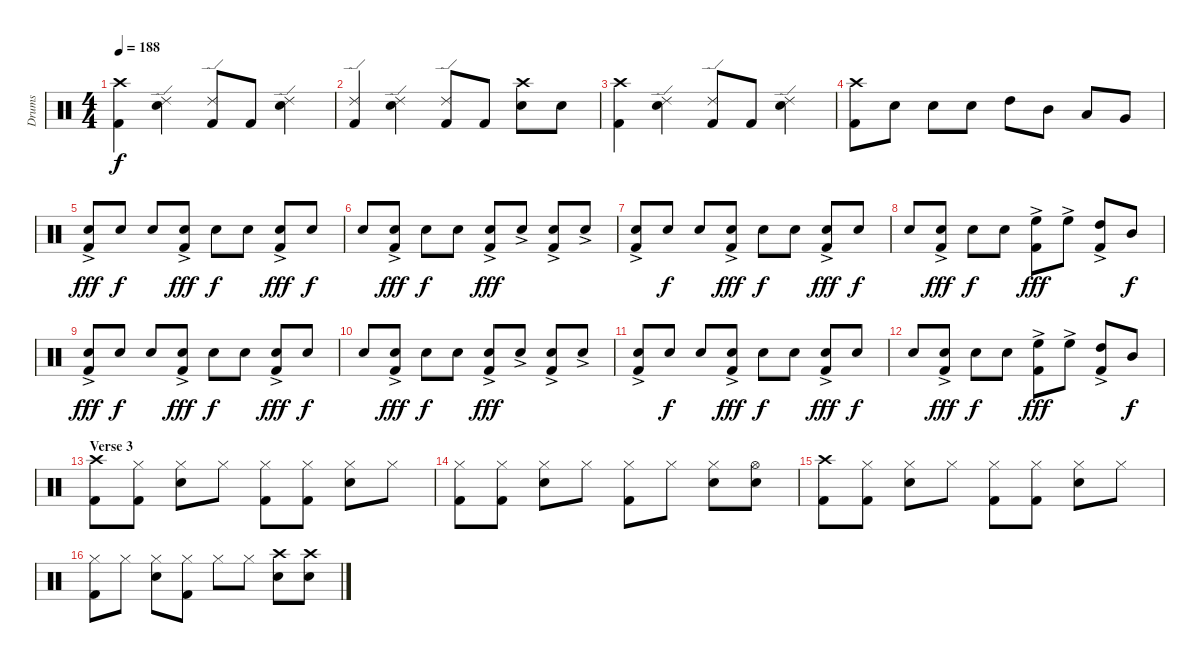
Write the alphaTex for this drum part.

\track ("Drums" "Drums") {instrument percussion}
\staff {score}
\articulation defaults
\ts (4 4)
\tempo 188
\clef neutral
\ks c
("Crash high (hit)" "Kick (hit) 2").4{dy f} ("Ride (edge) 2" "Snare (hit) 2").4 ("Ride (edge) 2" "Kick (hit) 2").8 "Kick (hit) 2".8 ("Ride (edge) 2" "Snare (hit) 2").4 |
("Ride (edge) 2" "Kick (hit) 2").4 ("Ride (edge) 2" "Snare (hit) 2").4 ("Ride (edge) 2" "Kick (hit) 2").8 "Kick (hit) 2".8 ("Crash high (hit)" "Snare (hit) 2").8 "Snare (hit) 2".8 |
("Crash high (hit)" "Kick (hit) 2").4 ("Ride (edge) 2" "Snare (hit) 2").4 ("Ride (edge) 2" "Kick (hit) 2").8 "Kick (hit) 2".8 ("Ride (edge) 2" "Snare (hit) 2").4 |
("Crash high (hit)" "Kick (hit) 2").8 "Snare (hit) 2".8 "Snare (hit) 2".8 "Snare (hit) 2".8 "High Tom (hit)".8 "Mid Tom (hit)".8 "Low Tom (hit)".8 "Very Low Tom (hit)".8 |
("Kick (hit) 2" "Snare (hit) 2"{ac}).8{dy fff} "Snare (hit) 2".8{dy f} "Snare (hit) 2".8 ("Kick (hit) 2" "Snare (hit) 2"{ac}).8{dy fff} "Snare (hit) 2".8{dy f} "Snare (hit) 2".8 ("Kick (hit) 2" "Snare (hit) 2"{ac}).8{dy fff} "Snare (hit) 2".8{dy f} |
"Snare (hit) 2".8 ("Kick (hit) 2" "Snare (hit) 2"{ac}).8{dy fff} "Snare (hit) 2".8{dy f} "Snare (hit) 2".8 ("Kick (hit) 2" "Snare (hit) 2"{ac}).8{dy fff} "Snare (hit) 2"{ac}.8 ("Kick (hit) 2" "Snare (hit) 2"{ac}).8 "Snare (hit) 2"{ac}.8 |
("Kick (hit) 2" "Snare (hit) 2"{ac}).8 "Snare (hit) 2".8{dy f} "Snare (hit) 2".8 ("Kick (hit) 2" "Snare (hit) 2"{ac}).8{dy fff} "Snare (hit) 2".8{dy f} "Snare (hit) 2".8 ("Kick (hit) 2" "Snare (hit) 2"{ac}).8{dy fff} "Snare (hit) 2".8{dy f} |
"Snare (hit) 2".8 ("Kick (hit) 2" "Snare (hit) 2"{ac}).8{dy fff} "Snare (hit) 2".8{dy f} "Snare (hit) 2".8 ("Kick (hit) 2" "High Floor Tom (hit)"{ac}).8{dy fff} "High Floor Tom (hit)"{ac}.8 ("Kick (hit) 2" "High Tom (hit)"{ac}).8 "Mid Tom (hit)".8{dy f} |
("Kick (hit) 2" "Snare (hit) 2"{ac}).8{dy fff} "Snare (hit) 2".8{dy f} "Snare (hit) 2".8 ("Kick (hit) 2" "Snare (hit) 2"{ac}).8{dy fff} "Snare (hit) 2".8{dy f} "Snare (hit) 2".8 ("Kick (hit) 2" "Snare (hit) 2"{ac}).8{dy fff} "Snare (hit) 2".8{dy f} |
"Snare (hit) 2".8 ("Kick (hit) 2" "Snare (hit) 2"{ac}).8{dy fff} "Snare (hit) 2".8{dy f} "Snare (hit) 2".8 ("Kick (hit) 2" "Snare (hit) 2"{ac}).8{dy fff} "Snare (hit) 2"{ac}.8 ("Kick (hit) 2" "Snare (hit) 2"{ac}).8 "Snare (hit) 2"{ac}.8 |
("Kick (hit) 2" "Snare (hit) 2"{ac}).8 "Snare (hit) 2".8{dy f} "Snare (hit) 2".8 ("Kick (hit) 2" "Snare (hit) 2"{ac}).8{dy fff} "Snare (hit) 2".8{dy f} "Snare (hit) 2".8 ("Kick (hit) 2" "Snare (hit) 2"{ac}).8{dy fff} "Snare (hit) 2".8{dy f} |
"Snare (hit) 2".8 ("Kick (hit) 2" "Snare (hit) 2"{ac}).8{dy fff} "Snare (hit) 2".8{dy f} "Snare (hit) 2".8 ("Kick (hit) 2" "High Floor Tom (hit)"{ac}).8{dy fff} "High Floor Tom (hit)"{ac}.8 ("Kick (hit) 2" "High Tom (hit)"{ac}).8 "Mid Tom (hit)".8{dy f} |
\section ("" "Verse 3")
("Crash high (hit)" "Kick (hit) 2").8 ("Hi-Hat (closed)" "Kick (hit) 2").8 ("Hi-Hat (closed)" "Snare (hit) 2").8 "Hi-Hat (closed)".8 ("Hi-Hat (closed)" "Kick (hit) 2").8 ("Hi-Hat (closed)" "Kick (hit) 2").8 ("Hi-Hat (closed)" "Snare (hit) 2").8 "Hi-Hat (closed)".8 |
("Hi-Hat (closed)" "Kick (hit) 2").8 ("Hi-Hat (closed)" "Kick (hit) 2").8 ("Hi-Hat (closed)" "Snare (hit) 2").8 "Hi-Hat (closed)".8 ("Hi-Hat (closed)" "Kick (hit) 2").8 "Hi-Hat (closed)".8 ("Hi-Hat (closed)" "Snare (hit) 2").8 ("Hi-Hat (open)" "Snare (hit) 2").8 |
("Crash high (hit)" "Kick (hit) 2").8 ("Hi-Hat (closed)" "Kick (hit) 2").8 ("Hi-Hat (closed)" "Snare (hit) 2").8 "Hi-Hat (closed)".8 ("Hi-Hat (closed)" "Kick (hit) 2").8 ("Hi-Hat (closed)" "Kick (hit) 2").8 ("Hi-Hat (closed)" "Snare (hit) 2").8 "Hi-Hat (closed)".8 |
("Hi-Hat (closed)" "Kick (hit) 2").8 "Hi-Hat (closed)".8 ("Hi-Hat (closed)" "Snare (hit) 2").8 ("Hi-Hat (closed)" "Kick (hit) 2").8 "Hi-Hat (closed)".8 "Hi-Hat (closed)".8 ("Crash high (hit)" "Snare (hit) 2").8 ("Crash high (hit)" "Snare (hit) 2").8
